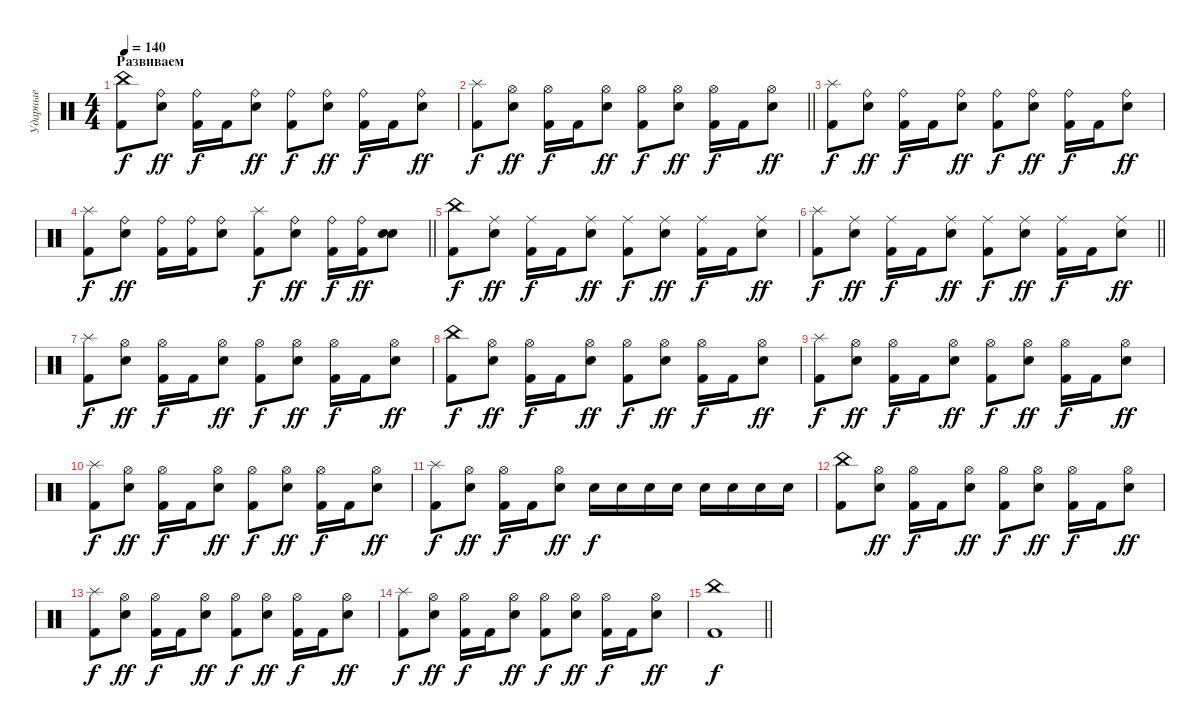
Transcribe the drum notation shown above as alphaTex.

\track ("Ударные" "Ударные") {instrument percussion}
\staff {score}
\articulation defaults
\ts (4 4)
\section ("" "Развиваем")
\tempo 140
\clef neutral
\ks c
("China (hit)" "Kick (hit) 2").8{dy f} ("Ride (bell)" "Electric Snare (hit)").8{dy ff} ("Ride (bell)" "Kick (hit) 2").16{dy f} "Kick (hit) 2".16 ("Ride (bell)" "Electric Snare (hit)").8{dy ff} ("Ride (bell)" "Kick (hit) 2").8{dy f} ("Ride (bell)" "Electric Snare (hit)").8{dy ff} ("Ride (bell)" "Kick (hit) 2").16{dy f} "Kick (hit) 2".16 ("Ride (bell)" "Electric Snare (hit)").8{dy ff} |
\barLineRight lightlight
("Splash (hit)" "Kick (hit) 2").8{dy f} ("Hi-Hat (open)" "Electric Snare (hit)").8{dy ff} ("Hi-Hat (open)" "Kick (hit) 2").16{dy f} "Kick (hit) 2".16 ("Hi-Hat (open)" "Electric Snare (hit)").8{dy ff} ("Hi-Hat (open)" "Kick (hit) 2").8{dy f} ("Hi-Hat (open)" "Electric Snare (hit)").8{dy ff} ("Hi-Hat (open)" "Kick (hit) 2").16{dy f} "Kick (hit) 2".16 ("Hi-Hat (open)" "Electric Snare (hit)").8{dy ff} |
("Splash (hit)" "Kick (hit) 2").8{dy f} ("Ride (bell)" "Electric Snare (hit)").8{dy ff} ("Ride (bell)" "Kick (hit) 2").16{dy f} "Kick (hit) 2".16 ("Ride (bell)" "Electric Snare (hit)").8{dy ff} ("Ride (bell)" "Kick (hit) 2").8{dy f} ("Ride (bell)" "Electric Snare (hit)").8{dy ff} ("Ride (bell)" "Kick (hit) 2").16{dy f} "Kick (hit) 2".16 ("Ride (bell)" "Electric Snare (hit)").8{dy ff} |
\barLineRight lightlight
("Splash (hit)" "Kick (hit) 2").8{dy f} ("Ride (bell)" "Electric Snare (hit)").8{dy ff} ("Ride (bell)" "Kick (hit) 2").16 ("Ride (bell)" "Kick (hit) 2").16 ("Ride (bell)" "Electric Snare (hit)").8 ("Splash (hit)" "Kick (hit) 2").8{dy f} ("Ride (bell)" "Electric Snare (hit)").8{dy ff} ("Ride (bell)" "Kick (hit) 2").16{dy f} ("Ride (bell)" "Kick (hit) 2").16{dy ff} ("Snare (hit)" "Electric Snare (hit)").8 |
("China (hit)" "Kick (hit) 2").8{dy f} ("Ride (middle)" "Electric Snare (hit)").8{dy ff} ("Ride (middle)" "Kick (hit) 2").16{dy f} "Kick (hit) 2".16 ("Ride (middle)" "Electric Snare (hit)").8{dy ff} ("Ride (middle)" "Kick (hit) 2").8{dy f} ("Ride (middle)" "Electric Snare (hit)").8{dy ff} ("Ride (middle)" "Kick (hit) 2").16{dy f} "Kick (hit) 2".16 ("Ride (middle)" "Electric Snare (hit)").8{dy ff} |
\barLineRight lightlight
("Splash (hit)" "Kick (hit) 2").8{dy f} ("Ride (middle)" "Electric Snare (hit)").8{dy ff} ("Ride (middle)" "Kick (hit) 2").16{dy f} "Kick (hit) 2".16 ("Ride (middle)" "Electric Snare (hit)").8{dy ff} ("Ride (middle)" "Kick (hit) 2").8{dy f} ("Ride (middle)" "Electric Snare (hit)").8{dy ff} ("Ride (middle)" "Kick (hit) 2").16{dy f} "Kick (hit) 2".16 ("Ride (middle)" "Electric Snare (hit)").8{dy ff} |
("Splash (hit)" "Kick (hit) 2").8{dy f} ("Hi-Hat (open)" "Electric Snare (hit)").8{dy ff} ("Hi-Hat (open)" "Kick (hit) 2").16{dy f} "Kick (hit) 2".16 ("Hi-Hat (open)" "Electric Snare (hit)").8{dy ff} ("Hi-Hat (open)" "Kick (hit) 2").8{dy f} ("Hi-Hat (open)" "Electric Snare (hit)").8{dy ff} ("Hi-Hat (open)" "Kick (hit) 2").16{dy f} "Kick (hit) 2".16 ("Hi-Hat (open)" "Electric Snare (hit)").8{dy ff} |
("China (hit)" "Kick (hit) 2").8{dy f} ("Hi-Hat (open)" "Electric Snare (hit)").8{dy ff} ("Hi-Hat (open)" "Kick (hit) 2").16{dy f} "Kick (hit) 2".16 ("Hi-Hat (open)" "Electric Snare (hit)").8{dy ff} ("Hi-Hat (open)" "Kick (hit) 2").8{dy f} ("Hi-Hat (open)" "Electric Snare (hit)").8{dy ff} ("Hi-Hat (open)" "Kick (hit) 2").16{dy f} "Kick (hit) 2".16 ("Hi-Hat (open)" "Electric Snare (hit)").8{dy ff} |
("Splash (hit)" "Kick (hit) 2").8{dy f} ("Hi-Hat (open)" "Electric Snare (hit)").8{dy ff} ("Hi-Hat (open)" "Kick (hit) 2").16{dy f} "Kick (hit) 2".16 ("Hi-Hat (open)" "Electric Snare (hit)").8{dy ff} ("Hi-Hat (open)" "Kick (hit) 2").8{dy f} ("Hi-Hat (open)" "Electric Snare (hit)").8{dy ff} ("Hi-Hat (open)" "Kick (hit) 2").16{dy f} "Kick (hit) 2".16 ("Hi-Hat (open)" "Electric Snare (hit)").8{dy ff} |
("Splash (hit)" "Kick (hit) 2").8{dy f} ("Hi-Hat (open)" "Electric Snare (hit)").8{dy ff} ("Hi-Hat (open)" "Kick (hit) 2").16{dy f} "Kick (hit) 2".16 ("Hi-Hat (open)" "Electric Snare (hit)").8{dy ff} ("Hi-Hat (open)" "Kick (hit) 2").8{dy f} ("Hi-Hat (open)" "Electric Snare (hit)").8{dy ff} ("Hi-Hat (open)" "Kick (hit) 2").16{dy f} "Kick (hit) 2".16 ("Hi-Hat (open)" "Electric Snare (hit)").8{dy ff} |
("Splash (hit)" "Kick (hit) 2").8{dy f} ("Hi-Hat (open)" "Electric Snare (hit)").8{dy ff} ("Hi-Hat (open)" "Kick (hit) 2").16{dy f} "Kick (hit) 2".16 ("Hi-Hat (open)" "Electric Snare (hit)").8{dy ff} "Electric Snare (hit)".16{dy f} "Electric Snare (hit)".16 "Electric Snare (hit)".16 "Electric Snare (hit)".16 "Electric Snare (hit)".16 "Electric Snare (hit)".16 "Electric Snare (hit)".16 "Electric Snare (hit)".16 |
("China (hit)" "Kick (hit) 2").8 ("Hi-Hat (open)" "Electric Snare (hit)").8{dy ff} ("Hi-Hat (open)" "Kick (hit) 2").16{dy f} "Kick (hit) 2".16 ("Hi-Hat (open)" "Electric Snare (hit)").8{dy ff} ("Hi-Hat (open)" "Kick (hit) 2").8{dy f} ("Hi-Hat (open)" "Electric Snare (hit)").8{dy ff} ("Hi-Hat (open)" "Kick (hit) 2").16{dy f} "Kick (hit) 2".16 ("Hi-Hat (open)" "Electric Snare (hit)").8{dy ff} |
("Splash (hit)" "Kick (hit) 2").8{dy f} ("Hi-Hat (open)" "Electric Snare (hit)").8{dy ff} ("Hi-Hat (open)" "Kick (hit) 2").16{dy f} "Kick (hit) 2".16 ("Hi-Hat (open)" "Electric Snare (hit)").8{dy ff} ("Hi-Hat (open)" "Kick (hit) 2").8{dy f} ("Hi-Hat (open)" "Electric Snare (hit)").8{dy ff} ("Hi-Hat (open)" "Kick (hit) 2").16{dy f} "Kick (hit) 2".16 ("Hi-Hat (open)" "Electric Snare (hit)").8{dy ff} |
("Splash (hit)" "Kick (hit) 2").8{dy f} ("Hi-Hat (open)" "Electric Snare (hit)").8{dy ff} ("Hi-Hat (open)" "Kick (hit) 2").16{dy f} "Kick (hit) 2".16 ("Hi-Hat (open)" "Electric Snare (hit)").8{dy ff} ("Hi-Hat (open)" "Kick (hit) 2").8{dy f} ("Hi-Hat (open)" "Electric Snare (hit)").8{dy ff} ("Hi-Hat (open)" "Kick (hit) 2").16{dy f} "Kick (hit) 2".16 ("Hi-Hat (open)" "Electric Snare (hit)").8{dy ff} |
\barLineRight lightlight
("China (hit)" "Kick (hit) 2").1{dy f}
